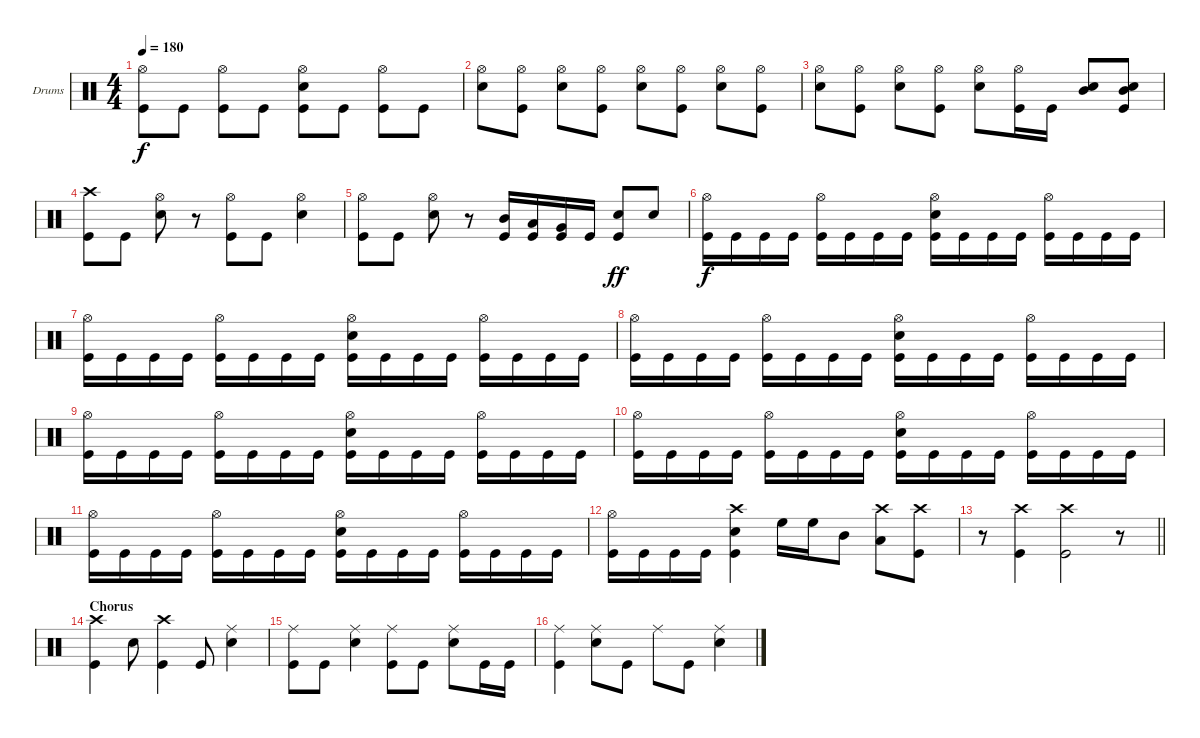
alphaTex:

\bracketExtendMode groupsimilarinstruments
\firstSystemTrackNameOrientation horizontal
\otherSystemsTrackNameOrientation horizontal
\track ("Drumkit" "Drums") {instrument percussion}
\staff {score}
\articulation defaults
\ts (4 4)
\tempo 180
\clef neutral
\ks c
("Hi-Hat (open)" "Kick (hit)").8{dy f} "Kick (hit)".8 ("Hi-Hat (open)" "Kick (hit)").8 "Kick (hit)".8 ("Hi-Hat (open)" "Snare (hit) 2" "Kick (hit)").8 "Kick (hit)".8 ("Hi-Hat (open)" "Kick (hit)").8 "Kick (hit)".8 |
("Hi-Hat (open)" "Snare (hit) 2").8 ("Hi-Hat (open)" "Kick (hit)").8 ("Hi-Hat (open)" "Snare (hit) 2").8 ("Hi-Hat (open)" "Kick (hit)").8 ("Hi-Hat (open)" "Snare (hit) 2").8 ("Hi-Hat (open)" "Kick (hit)").8 ("Hi-Hat (open)" "Snare (hit) 2").8 ("Hi-Hat (open)" "Kick (hit)").8 |
("Hi-Hat (open)" "Snare (hit) 2").8 ("Hi-Hat (open)" "Kick (hit)").8 ("Hi-Hat (open)" "Snare (hit) 2").8 ("Hi-Hat (open)" "Kick (hit)").8 ("Hi-Hat (open)" "Snare (hit) 2").8 ("Hi-Hat (open)" "Kick (hit)").16 "Kick (hit)".16 ("Mid Tom (hit)" "Snare (hit) 2").8 ("Mid Tom (hit)" "Snare (hit) 2" "Kick (hit)").8 |
("Crash high (hit)" "Kick (hit)").8 "Kick (hit)".8 ("Hi-Hat (open)" "Snare (hit) 2").8 r.8 ("Hi-Hat (open)" "Kick (hit)").8 "Kick (hit)".8 ("Hi-Hat (open)" "Snare (hit) 2").4 |
("Hi-Hat (open)" "Kick (hit)").8 "Kick (hit)".8 ("Hi-Hat (open)" "Snare (hit) 2").8 r.8 ("Mid Tom (hit)" "Kick (hit)").16 ("Low Tom (hit)" "Kick (hit)").16 ("Very Low Tom (hit)" "Kick (hit)").16 "Kick (hit)".16 ("Snare (hit) 2" "Kick (hit)").8{dy ff} "Snare (hit) 2".8 |
("Hi-Hat (open)" "Kick (hit)").16{dy f} "Kick (hit)".16 "Kick (hit)".16 "Kick (hit)".16 ("Hi-Hat (open)" "Kick (hit)").16 "Kick (hit)".16 "Kick (hit)".16 "Kick (hit)".16 ("Hi-Hat (open)" "Snare (hit) 2" "Kick (hit)").16 "Kick (hit)".16 "Kick (hit)".16 "Kick (hit)".16 ("Hi-Hat (open)" "Kick (hit)").16 "Kick (hit)".16 "Kick (hit)".16 "Kick (hit)".16 |
("Hi-Hat (open)" "Kick (hit)").16 "Kick (hit)".16 "Kick (hit)".16 "Kick (hit)".16 ("Hi-Hat (open)" "Kick (hit)").16 "Kick (hit)".16 "Kick (hit)".16 "Kick (hit)".16 ("Hi-Hat (open)" "Snare (hit) 2" "Kick (hit)").16 "Kick (hit)".16 "Kick (hit)".16 "Kick (hit)".16 ("Hi-Hat (open)" "Kick (hit)").16 "Kick (hit)".16 "Kick (hit)".16 "Kick (hit)".16 |
("Hi-Hat (open)" "Kick (hit)").16 "Kick (hit)".16 "Kick (hit)".16 "Kick (hit)".16 ("Hi-Hat (open)" "Kick (hit)").16 "Kick (hit)".16 "Kick (hit)".16 "Kick (hit)".16 ("Hi-Hat (open)" "Snare (hit) 2" "Kick (hit)").16 "Kick (hit)".16 "Kick (hit)".16 "Kick (hit)".16 ("Hi-Hat (open)" "Kick (hit)").16 "Kick (hit)".16 "Kick (hit)".16 "Kick (hit)".16 |
("Hi-Hat (open)" "Kick (hit)").16 "Kick (hit)".16 "Kick (hit)".16 "Kick (hit)".16 ("Hi-Hat (open)" "Kick (hit)").16 "Kick (hit)".16 "Kick (hit)".16 "Kick (hit)".16 ("Hi-Hat (open)" "Snare (hit) 2" "Kick (hit)").16 "Kick (hit)".16 "Kick (hit)".16 "Kick (hit)".16 ("Hi-Hat (open)" "Kick (hit)").16 "Kick (hit)".16 "Kick (hit)".16 "Kick (hit)".16 |
("Hi-Hat (open)" "Kick (hit)").16 "Kick (hit)".16 "Kick (hit)".16 "Kick (hit)".16 ("Hi-Hat (open)" "Kick (hit)").16 "Kick (hit)".16 "Kick (hit)".16 "Kick (hit)".16 ("Hi-Hat (open)" "Snare (hit) 2" "Kick (hit)").16 "Kick (hit)".16 "Kick (hit)".16 "Kick (hit)".16 ("Hi-Hat (open)" "Kick (hit)").16 "Kick (hit)".16 "Kick (hit)".16 "Kick (hit)".16 |
("Hi-Hat (open)" "Kick (hit)").16 "Kick (hit)".16 "Kick (hit)".16 "Kick (hit)".16 ("Hi-Hat (open)" "Kick (hit)").16 "Kick (hit)".16 "Kick (hit)".16 "Kick (hit)".16 ("Hi-Hat (open)" "Snare (hit) 2" "Kick (hit)").16 "Kick (hit)".16 "Kick (hit)".16 "Kick (hit)".16 ("Hi-Hat (open)" "Kick (hit)").16 "Kick (hit)".16 "Kick (hit)".16 "Kick (hit)".16 |
("Hi-Hat (open)" "Kick (hit)").16 "Kick (hit)".16 "Kick (hit)".16 "Kick (hit)".16 ("Crash high (hit)" "Snare (hit) 2" "Kick (hit)").4 "High Floor Tom (hit)".16 "High Floor Tom (hit)".16 "Mid Tom (hit)".8 ("Crash high (hit)" "Low Tom (hit)").8 ("Crash high (hit)" "Kick (hit)").8 |
\barLineRight lightlight
r.8 ("Crash high (hit)" "Kick (hit)").4 ("Crash high (hit)" "Kick (hit)").2 r.8 |
\section ("" "Chorus")
("Crash high (hit)" "Kick (hit)").4 "Snare (hit) 2".8 ("Crash high (hit)" "Kick (hit)").4 "Kick (hit)".8 ("Ride (middle)" "Snare (hit) 2").4 |
("Ride (middle)" "Kick (hit)").8 "Kick (hit)".8 ("Ride (middle)" "Snare (hit) 2").4 ("Ride (middle)" "Kick (hit)").8 "Kick (hit)".8 ("Ride (middle)" "Snare (hit) 2").8 "Kick (hit)".16 "Kick (hit)".16 |
("Ride (middle)" "Kick (hit)").4 ("Ride (middle)" "Snare (hit) 2").8 "Kick (hit)".8 "Ride (middle)".8 "Kick (hit)".8 ("Ride (middle)" "Snare (hit) 2").4
